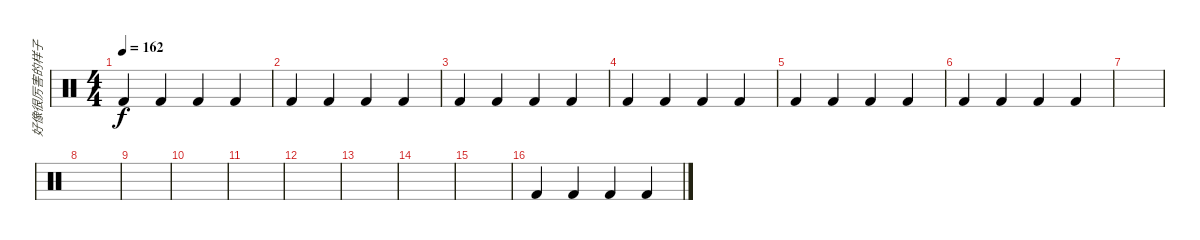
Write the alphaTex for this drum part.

\track ("好像很厉害的样子" "好像很厉害的样子") {instrument percussion}
\staff {score}
\articulation defaults
\ts (4 4)
\tempo 162
\clef neutral
\ks c "Kick (hit) 2".4{dy f} "Kick (hit) 2".4 "Kick (hit) 2".4 "Kick (hit) 2".4
|
"Kick (hit) 2".4 "Kick (hit) 2".4 "Kick (hit) 2".4 "Kick (hit) 2".4 |
"Kick (hit) 2".4 "Kick (hit) 2".4 "Kick (hit) 2".4 "Kick (hit) 2".4 |
"Kick (hit) 2".4 "Kick (hit) 2".4 "Kick (hit) 2".4 "Kick (hit) 2".4 |
"Kick (hit) 2".4 "Kick (hit) 2".4 "Kick (hit) 2".4 "Kick (hit) 2".4 |
"Kick (hit) 2".4 "Kick (hit) 2".4 "Kick (hit) 2".4 "Kick (hit) 2".4 |
|
|
|
|
|
|
|
|
|
"Kick (hit) 2".4 "Kick (hit) 2".4 "Kick (hit) 2".4 "Kick (hit) 2".4
